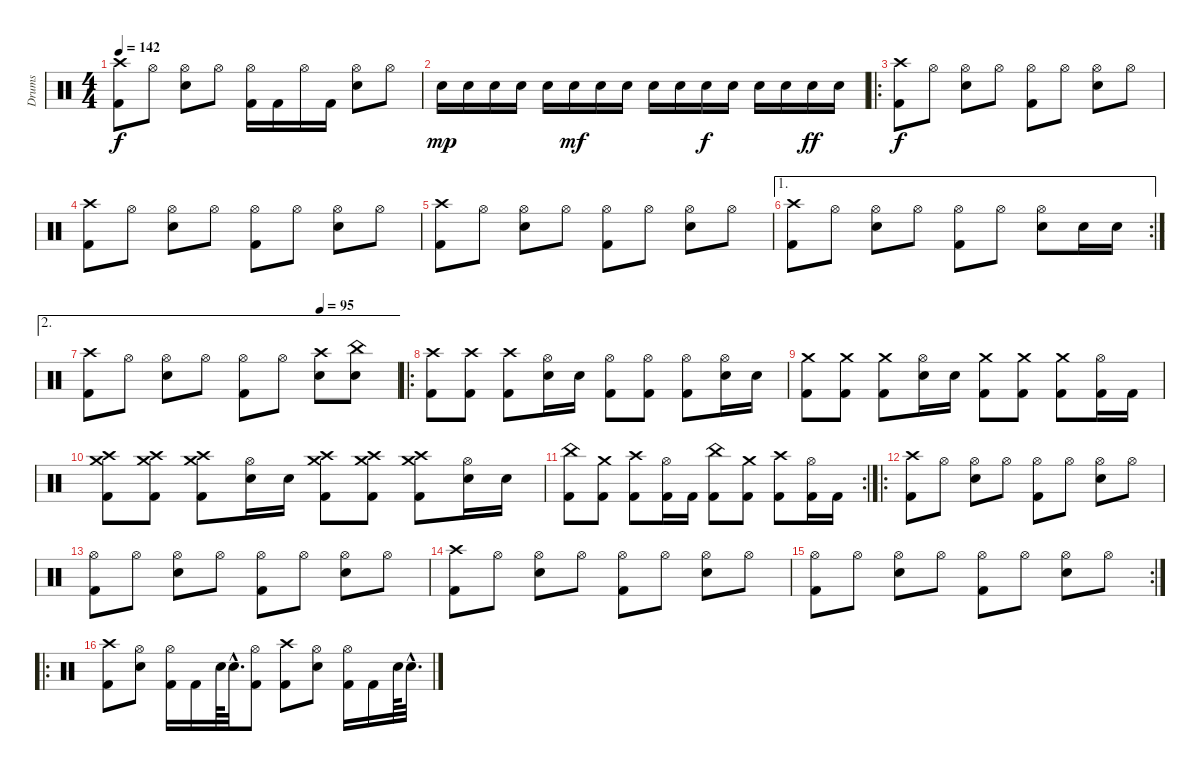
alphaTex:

\track ("Drums" "Drums") {instrument percussion}
\staff {score}
\articulation defaults
\ts (4 4)
\tempo 142
\clef neutral
\ks c
("Crash high (hit)" "Kick (hit) 2").8{dy f} "Hi-Hat (open)".8 ("Hi-Hat (open)" "Snare (hit) 2").8 "Hi-Hat (open)".8 ("Hi-Hat (open)" "Kick (hit) 2").16 "Kick (hit) 2".16 "Hi-Hat (open)".16 "Kick (hit) 2".16 ("Hi-Hat (open)" "Snare (hit) 2").8 "Hi-Hat (open)".8 |
"Snare (hit) 2".16{dy mp} "Snare (hit) 2".16 "Snare (hit) 2".16 "Snare (hit) 2".16 "Snare (hit) 2".16 "Snare (hit) 2".16{dy mf} "Snare (hit) 2".16 "Snare (hit) 2".16 "Snare (hit) 2".16 "Snare (hit) 2".16 "Snare (hit) 2".16{dy f} "Snare (hit) 2".16 "Snare (hit) 2".16 "Snare (hit) 2".16 "Snare (hit) 2".16{dy ff} "Snare (hit) 2".16 |
\ro
("Crash high (hit)" "Kick (hit) 2").8{dy f} "Hi-Hat (open)".8 ("Hi-Hat (open)" "Snare (hit) 2").8 "Hi-Hat (open)".8 ("Hi-Hat (open)" "Kick (hit) 2").8 "Hi-Hat (open)".8 ("Hi-Hat (open)" "Snare (hit) 2").8 "Hi-Hat (open)".8 |
("Crash high (hit)" "Kick (hit) 2").8 "Hi-Hat (open)".8 ("Hi-Hat (open)" "Snare (hit) 2").8 "Hi-Hat (open)".8 ("Hi-Hat (open)" "Kick (hit) 2").8 "Hi-Hat (open)".8 ("Hi-Hat (open)" "Snare (hit) 2").8 "Hi-Hat (open)".8 |
("Crash high (hit)" "Kick (hit) 2").8 "Hi-Hat (open)".8 ("Hi-Hat (open)" "Snare (hit) 2").8 "Hi-Hat (open)".8 ("Hi-Hat (open)" "Kick (hit) 2").8 "Hi-Hat (open)".8 ("Hi-Hat (open)" "Snare (hit) 2").8 "Hi-Hat (open)".8 |
\ae 1
\rc 2
("Kick (hit) 2" "Crash high (hit)").8 "Hi-Hat (open)".8 ("Hi-Hat (open)" "Snare (hit) 2").8 "Hi-Hat (open)".8 ("Hi-Hat (open)" "Kick (hit) 2").8 "Hi-Hat (open)".8 ("Hi-Hat (open)" "Snare (hit) 2").8 "Snare (hit) 2".16 "Snare (hit) 2".16 |
\ae 2
\tempo (95 0.75)
("Crash high (hit)" "Kick (hit) 2").8 "Hi-Hat (open)".8 ("Hi-Hat (open)" "Snare (hit) 2").8 "Hi-Hat (open)".8 ("Hi-Hat (open)" "Kick (hit) 2").8 "Hi-Hat (open)".8 ("Crash high (hit)" "Snare (hit) 2").8 ("China (hit)" "Snare (hit) 2").8 |
\ro
("Crash high (hit)" "Kick (hit) 2").8 ("Crash high (hit)" "Kick (hit) 2").8 ("Crash high (hit)" "Kick (hit) 2").8 ("Hi-Hat (open)" "Snare (hit) 2").16 "Snare (hit) 2".16 ("Hi-Hat (open)" "Kick (hit) 2").8 ("Hi-Hat (open)" "Kick (hit) 2").8 ("Hi-Hat (open)" "Kick (hit) 2").8 ("Hi-Hat (open)" "Snare (hit) 2").16 "Snare (hit) 2".16 |
("Crash medium (hit)" "Kick (hit) 2").8 ("Crash medium (hit)" "Kick (hit) 2").8 ("Crash medium (hit)" "Kick (hit) 2").8 ("Hi-Hat (open)" "Snare (hit) 2").16 "Snare (hit) 2".16 ("Crash medium (hit)" "Kick (hit) 2").8 ("Crash medium (hit)" "Kick (hit) 2").8 ("Crash medium (hit)" "Kick (hit) 2").8 ("Hi-Hat (open)" "Kick (hit) 2").16 "Kick (hit) 2".16 |
("Crash high (hit)" "Crash medium (hit)" "Kick (hit) 2").8 ("Crash high (hit)" "Crash medium (hit)" "Kick (hit) 2").8 ("Crash high (hit)" "Crash medium (hit)" "Kick (hit) 2").8 ("Hi-Hat (open)" "Snare (hit) 2").16 "Snare (hit) 2".16 ("Crash high (hit)" "Crash medium (hit)" "Kick (hit) 2").8 ("Crash high (hit)" "Crash medium (hit)" "Kick (hit) 2").8 ("Crash high (hit)" "Crash medium (hit)" "Kick (hit) 2").8 ("Hi-Hat (open)" "Snare (hit) 2").16 "Snare (hit) 2".16 |
\rc 2
("China (hit)" "Kick (hit) 2").8 ("Crash medium (hit)" "Kick (hit) 2").8 ("Crash high (hit)" "Kick (hit) 2").8 ("Hi-Hat (open)" "Kick (hit) 2").16 "Kick (hit) 2".16 ("China (hit)" "Kick (hit) 2").8 ("Crash medium (hit)" "Kick (hit) 2").8 ("Crash high (hit)" "Kick (hit) 2").8 ("Hi-Hat (open)" "Kick (hit) 2").16 "Kick (hit) 2".16 |
\ro
("Crash high (hit)" "Kick (hit) 2").8 "Hi-Hat (open)".8 ("Hi-Hat (open)" "Snare (hit) 2").8 "Hi-Hat (open)".8 ("Hi-Hat (open)" "Kick (hit) 2").8 "Hi-Hat (open)".8 ("Hi-Hat (open)" "Snare (hit) 2").8 "Hi-Hat (open)".8 |
("Hi-Hat (open)" "Kick (hit) 2").8 "Hi-Hat (open)".8 ("Hi-Hat (open)" "Snare (hit) 2").8 "Hi-Hat (open)".8 ("Hi-Hat (open)" "Kick (hit) 2").8 "Hi-Hat (open)".8 ("Hi-Hat (open)" "Snare (hit) 2").8 "Hi-Hat (open)".8 |
("Crash high (hit)" "Kick (hit) 2").8 "Hi-Hat (open)".8 ("Hi-Hat (open)" "Snare (hit) 2").8 "Hi-Hat (open)".8 ("Hi-Hat (open)" "Kick (hit) 2").8 "Hi-Hat (open)".8 ("Hi-Hat (open)" "Snare (hit) 2").8 "Hi-Hat (open)".8 |
\rc 2
("Hi-Hat (open)" "Kick (hit) 2").8 "Hi-Hat (open)".8 ("Hi-Hat (open)" "Snare (hit) 2").8 "Hi-Hat (open)".8 ("Hi-Hat (open)" "Kick (hit) 2").8 "Hi-Hat (open)".8 ("Hi-Hat (open)" "Snare (hit) 2").8 "Hi-Hat (open)".8 |
\ro
("Crash high (hit)" "Kick (hit) 2").8 ("Hi-Hat (open)" "Snare (hit) 2").8 ("Hi-Hat (open)" "Kick (hit) 2").16 "Kick (hit) 2".16 "Snare (hit) 2".64 "Snare (hit) 2"{hac}.32{d} ("Kick (hit) 2" "Hi-Hat (open)").8 ("Crash high (hit)" "Kick (hit) 2").8 ("Hi-Hat (open)" "Snare (hit) 2").8 ("Hi-Hat (open)" "Kick (hit) 2").16 "Kick (hit) 2".16 "Snare (hit) 2".64 "Snare (hit) 2"{hac}.32{d}
